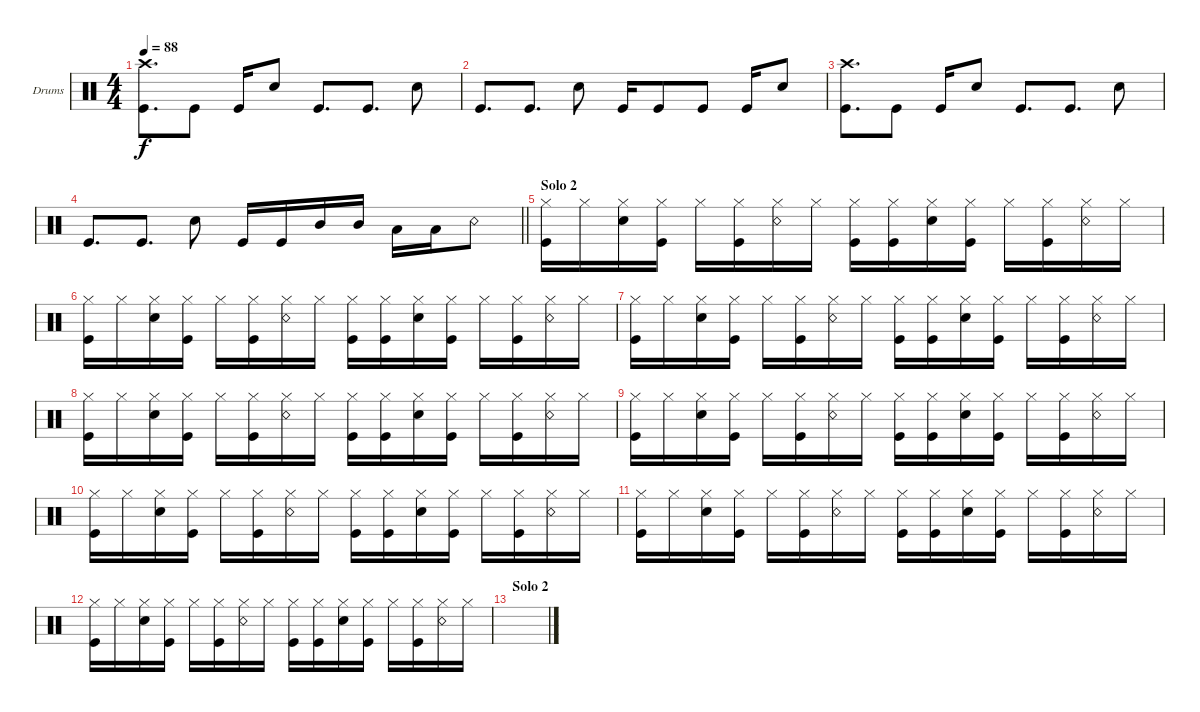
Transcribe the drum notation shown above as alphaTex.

\bracketExtendMode groupsimilarinstruments
\firstSystemTrackNameOrientation horizontal
\otherSystemsTrackNameOrientation horizontal
\track ("Drums" "Drums") {instrument percussion}
\staff {score}
\articulation defaults
\ts (4 4)
\tempo 88
\clef neutral
\ks c
("Kick (hit)" "Crash high (hit)").8{d dy f} "Kick (hit)".8 "Kick (hit)".16 "Snare (hit) 2".8 "Kick (hit)".8{d} "Kick (hit)".8{d} "Snare (hit) 2".8 |
"Kick (hit)".8{d} "Kick (hit)".8{d} "Snare (hit) 2".8 "Kick (hit)".16 "Kick (hit)".8 "Kick (hit)".8 "Kick (hit)".16 "Snare (hit) 2".8 |
("Kick (hit)" "Crash high (hit)").8{d} "Kick (hit)".8 "Kick (hit)".16 "Snare (hit) 2".8 "Kick (hit)".8{d} "Kick (hit)".8{d} "Snare (hit) 2".8 |
\barLineRight lightlight "Kick (hit)".8{d} "Kick (hit)".8{d} "Snare (hit) 2".8 "Kick (hit)".16 "Kick (hit)".16 "Mid Tom (hit)".16 "Mid Tom (hit)".16 "Low Tom (hit)".16 "Low Tom (hit)".16 "Snare (rim shot)".8
|
\section ("" "Solo 2")
("Hi-Hat (closed)" "Kick (hit)").16 "Hi-Hat (closed)".16 ("Hi-Hat (closed)" "Snare (hit) 2").16 ("Hi-Hat (closed)" "Kick (hit)").16 "Hi-Hat (closed)".16 ("Hi-Hat (closed)" "Kick (hit)").16 ("Hi-Hat (closed)" "Snare (rim shot)").16 "Hi-Hat (closed)".16 ("Hi-Hat (closed)" "Kick (hit)").16 ("Hi-Hat (closed)" "Kick (hit)").16 ("Hi-Hat (closed)" "Snare (hit) 2").16 ("Hi-Hat (closed)" "Kick (hit)").16 "Hi-Hat (closed)".16 ("Hi-Hat (closed)" "Kick (hit)").16 ("Hi-Hat (closed)" "Snare (rim shot)").16 "Hi-Hat (closed)".16 |
("Hi-Hat (closed)" "Kick (hit)").16 "Hi-Hat (closed)".16 ("Hi-Hat (closed)" "Snare (hit) 2").16 ("Hi-Hat (closed)" "Kick (hit)").16 "Hi-Hat (closed)".16 ("Hi-Hat (closed)" "Kick (hit)").16 ("Hi-Hat (closed)" "Snare (rim shot)").16 "Hi-Hat (closed)".16 ("Hi-Hat (closed)" "Kick (hit)").16 ("Hi-Hat (closed)" "Kick (hit)").16 ("Hi-Hat (closed)" "Snare (hit) 2").16 ("Hi-Hat (closed)" "Kick (hit)").16 "Hi-Hat (closed)".16 ("Hi-Hat (closed)" "Kick (hit)").16 ("Hi-Hat (closed)" "Snare (rim shot)").16 "Hi-Hat (closed)".16 |
("Hi-Hat (closed)" "Kick (hit)").16 "Hi-Hat (closed)".16 ("Hi-Hat (closed)" "Snare (hit) 2").16 ("Hi-Hat (closed)" "Kick (hit)").16 "Hi-Hat (closed)".16 ("Hi-Hat (closed)" "Kick (hit)").16 ("Hi-Hat (closed)" "Snare (rim shot)").16 "Hi-Hat (closed)".16 ("Hi-Hat (closed)" "Kick (hit)").16 ("Hi-Hat (closed)" "Kick (hit)").16 ("Hi-Hat (closed)" "Snare (hit) 2").16 ("Hi-Hat (closed)" "Kick (hit)").16 "Hi-Hat (closed)".16 ("Hi-Hat (closed)" "Kick (hit)").16 ("Hi-Hat (closed)" "Snare (rim shot)").16 "Hi-Hat (closed)".16 |
("Hi-Hat (closed)" "Kick (hit)").16 "Hi-Hat (closed)".16 ("Hi-Hat (closed)" "Snare (hit) 2").16 ("Hi-Hat (closed)" "Kick (hit)").16 "Hi-Hat (closed)".16 ("Hi-Hat (closed)" "Kick (hit)").16 ("Hi-Hat (closed)" "Snare (rim shot)").16 "Hi-Hat (closed)".16 ("Hi-Hat (closed)" "Kick (hit)").16 ("Hi-Hat (closed)" "Kick (hit)").16 ("Hi-Hat (closed)" "Snare (hit) 2").16 ("Hi-Hat (closed)" "Kick (hit)").16 "Hi-Hat (closed)".16 ("Hi-Hat (closed)" "Kick (hit)").16 ("Hi-Hat (closed)" "Snare (rim shot)").16 "Hi-Hat (closed)".16 |
("Hi-Hat (closed)" "Kick (hit)").16 "Hi-Hat (closed)".16 ("Hi-Hat (closed)" "Snare (hit) 2").16 ("Hi-Hat (closed)" "Kick (hit)").16 "Hi-Hat (closed)".16 ("Hi-Hat (closed)" "Kick (hit)").16 ("Hi-Hat (closed)" "Snare (rim shot)").16 "Hi-Hat (closed)".16 ("Hi-Hat (closed)" "Kick (hit)").16 ("Hi-Hat (closed)" "Kick (hit)").16 ("Hi-Hat (closed)" "Snare (hit) 2").16 ("Hi-Hat (closed)" "Kick (hit)").16 "Hi-Hat (closed)".16 ("Hi-Hat (closed)" "Kick (hit)").16 ("Hi-Hat (closed)" "Snare (rim shot)").16 "Hi-Hat (closed)".16 |
("Hi-Hat (closed)" "Kick (hit)").16 "Hi-Hat (closed)".16 ("Hi-Hat (closed)" "Snare (hit) 2").16 ("Hi-Hat (closed)" "Kick (hit)").16 "Hi-Hat (closed)".16 ("Hi-Hat (closed)" "Kick (hit)").16 ("Hi-Hat (closed)" "Snare (rim shot)").16 "Hi-Hat (closed)".16 ("Hi-Hat (closed)" "Kick (hit)").16 ("Hi-Hat (closed)" "Kick (hit)").16 ("Hi-Hat (closed)" "Snare (hit) 2").16 ("Hi-Hat (closed)" "Kick (hit)").16 "Hi-Hat (closed)".16 ("Hi-Hat (closed)" "Kick (hit)").16 ("Hi-Hat (closed)" "Snare (rim shot)").16 "Hi-Hat (closed)".16 |
("Hi-Hat (closed)" "Kick (hit)").16 "Hi-Hat (closed)".16 ("Hi-Hat (closed)" "Snare (hit) 2").16 ("Hi-Hat (closed)" "Kick (hit)").16 "Hi-Hat (closed)".16 ("Hi-Hat (closed)" "Kick (hit)").16 ("Hi-Hat (closed)" "Snare (rim shot)").16 "Hi-Hat (closed)".16 ("Hi-Hat (closed)" "Kick (hit)").16 ("Hi-Hat (closed)" "Kick (hit)").16 ("Hi-Hat (closed)" "Snare (hit) 2").16 ("Hi-Hat (closed)" "Kick (hit)").16 "Hi-Hat (closed)".16 ("Hi-Hat (closed)" "Kick (hit)").16 ("Hi-Hat (closed)" "Snare (rim shot)").16 "Hi-Hat (closed)".16 |
("Hi-Hat (closed)" "Kick (hit)").16 "Hi-Hat (closed)".16 ("Hi-Hat (closed)" "Snare (hit) 2").16 ("Hi-Hat (closed)" "Kick (hit)").16 "Hi-Hat (closed)".16 ("Hi-Hat (closed)" "Kick (hit)").16 ("Hi-Hat (closed)" "Snare (rim shot)").16 "Hi-Hat (closed)".16 ("Hi-Hat (closed)" "Kick (hit)").16 ("Hi-Hat (closed)" "Kick (hit)").16 ("Hi-Hat (closed)" "Snare (hit) 2").16 ("Hi-Hat (closed)" "Kick (hit)").16 "Hi-Hat (closed)".16 ("Hi-Hat (closed)" "Kick (hit)").16 ("Hi-Hat (closed)" "Snare (rim shot)").16 "Hi-Hat (closed)".16 |
\section ("" "Solo 2")
